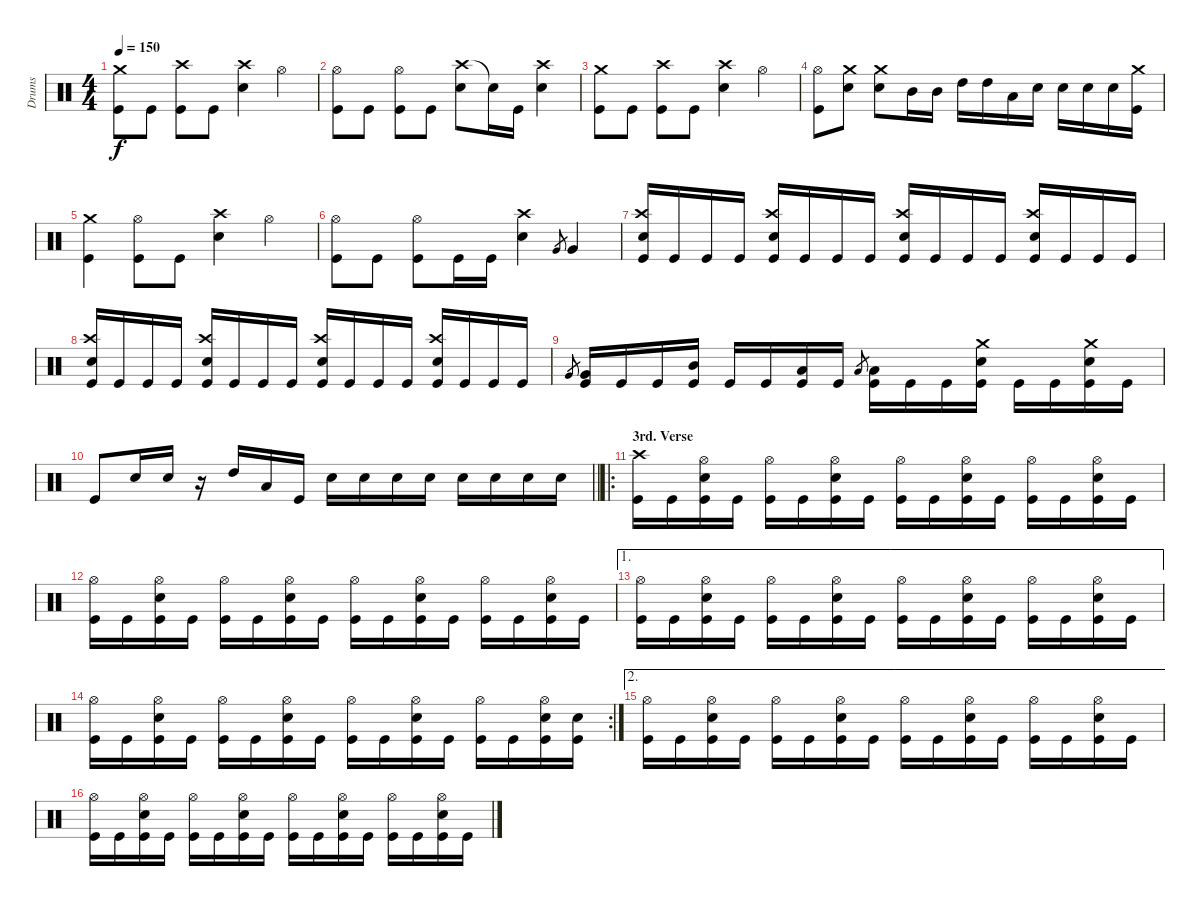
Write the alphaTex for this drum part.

\track ("Drums" "Drums") {instrument percussion}
\staff {score}
\articulation defaults
\ts (4 4)
\tempo 150
\clef neutral
\ks c
("Crash medium (hit)" "Kick (hit)").8{dy f} "Kick (hit)".8 ("Crash high (hit)" "Kick (hit)").8 "Kick (hit)".8 ("Crash high (hit)" "Snare (hit) 2").4 "Hi-Hat (open)".4 |
("Hi-Hat (open)" "Kick (hit)").8 "Kick (hit)".8 ("Hi-Hat (open)" "Kick (hit)").8 "Kick (hit)".8 ("Crash high (hit)" "Snare (hit) 2").8 "Snare (hit)"{t}.16 "Kick (hit)".16 ("Crash high (hit)" "Snare (hit) 2").4 |
("Crash medium (hit)" "Kick (hit)").8 "Kick (hit)".8 ("Crash high (hit)" "Kick (hit)").8 "Kick (hit)".8 ("Crash high (hit)" "Snare (hit) 2").4 "Hi-Hat (open)".4 |
("Hi-Hat (open)" "Kick (hit)").8 ("Crash medium (hit)" "Snare (hit) 2").8 ("Crash medium (hit)" "Snare (hit) 2").8 "Mid Tom (hit)".16 "Mid Tom (hit)".16 "High Tom (hit)".16 "High Tom (hit)".16 "Low Tom (hit)".16 "Snare (hit) 2".16 "Snare (hit) 2".16 "Snare (hit) 2".16 "Snare (hit) 2".16 ("Crash medium (hit)" "Kick (hit)").16 |
("Crash medium (hit)" "Kick (hit)").4 ("Hi-Hat (open)" "Kick (hit)").8 "Kick (hit)".8 ("Crash high (hit)" "Snare (hit) 2").4 "Hi-Hat (open)".4 |
("Hi-Hat (open)" "Kick (hit)").8 "Kick (hit)".8 ("Hi-Hat (open)" "Kick (hit)").8 "Kick (hit)".16 "Kick (hit)".16 ("Crash high (hit)" "Snare (hit) 2").4 "Very Low Tom (hit)".8{gr} "Very Low Tom (hit)".4 |
("Crash high (hit)" "Snare (hit) 2" "Kick (hit)").16 "Kick (hit)".16 "Kick (hit)".16 "Kick (hit)".16 ("Crash high (hit)" "Snare (hit) 2" "Kick (hit)").16 "Kick (hit)".16 "Kick (hit)".16 "Kick (hit)".16 ("Crash high (hit)" "Snare (hit) 2" "Kick (hit)").16 "Kick (hit)".16 "Kick (hit)".16 "Kick (hit)".16 ("Crash high (hit)" "Snare (hit) 2" "Kick (hit)").16 "Kick (hit)".16 "Kick (hit)".16 "Kick (hit)".16 |
("Crash high (hit)" "Snare (hit) 2" "Kick (hit)").16 "Kick (hit)".16 "Kick (hit)".16 "Kick (hit)".16 ("Crash high (hit)" "Snare (hit) 2" "Kick (hit)").16 "Kick (hit)".16 "Kick (hit)".16 "Kick (hit)".16 ("Crash high (hit)" "Snare (hit) 2" "Kick (hit)").16 "Kick (hit)".16 "Kick (hit)".16 "Kick (hit)".16 ("Crash high (hit)" "Snare (hit) 2" "Kick (hit)").16 "Kick (hit)".16 "Kick (hit)".16 "Kick (hit)".16 |
"Very Low Tom (hit)".8{gr} ("Very Low Tom (hit)" "Kick (hit)").16 "Kick (hit)".16 "Kick (hit)".16 ("Mid Tom (hit)" "Kick (hit)").16 "Kick (hit)".16 "Kick (hit)".16 ("Low Tom (hit)" "Kick (hit)").16 "Kick (hit)".16 "Low Tom (hit)".8{gr} ("Low Tom (hit)" "Kick (hit)").16 "Kick (hit)".16 "Kick (hit)".16 ("Crash medium (hit)" "Snare (hit) 2" "Kick (hit)").16 "Kick (hit)".16 "Kick (hit)".16 ("Crash medium (hit)" "Snare (hit) 2" "Kick (hit)").16 "Kick (hit)".16 |
\barLineRight lightlight "Kick (hit)".8 "Snare (hit) 2".16 "Snare (hit) 2".16
r.16 "High Tom (hit)".16 "Low Tom (hit)".16 "Kick (hit)".16 "Snare (hit) 2".16 "Snare (hit) 2".16 "Snare (hit) 2".16 "Snare (hit) 2".16 "Snare (hit) 2".16 "Snare (hit) 2".16 "Snare (hit) 2".16 "Snare (hit) 2".16 |
\ro
\section ("" "3rd. Verse")
("Crash high (hit)" "Kick (hit)").16 "Kick (hit)".16 ("Hi-Hat (open)" "Snare (hit) 2" "Kick (hit)").16 "Kick (hit)".16 ("Hi-Hat (open)" "Kick (hit)").16 "Kick (hit)".16 ("Hi-Hat (open)" "Snare (hit) 2" "Kick (hit)").16 "Kick (hit)".16 ("Hi-Hat (open)" "Kick (hit)").16 "Kick (hit)".16 ("Hi-Hat (open)" "Snare (hit) 2" "Kick (hit)").16 "Kick (hit)".16 ("Hi-Hat (open)" "Kick (hit)").16 "Kick (hit)".16 ("Hi-Hat (open)" "Snare (hit) 2" "Kick (hit)").16 "Kick (hit)".16 |
("Hi-Hat (open)" "Kick (hit)").16 "Kick (hit)".16 ("Hi-Hat (open)" "Snare (hit) 2" "Kick (hit)").16 "Kick (hit)".16 ("Hi-Hat (open)" "Kick (hit)").16 "Kick (hit)".16 ("Hi-Hat (open)" "Snare (hit) 2" "Kick (hit)").16 "Kick (hit)".16 ("Hi-Hat (open)" "Kick (hit)").16 "Kick (hit)".16 ("Hi-Hat (open)" "Snare (hit) 2" "Kick (hit)").16 "Kick (hit)".16 ("Hi-Hat (open)" "Kick (hit)").16 "Kick (hit)".16 ("Hi-Hat (open)" "Snare (hit) 2" "Kick (hit)").16 "Kick (hit)".16 |
\ae 1
("Hi-Hat (open)" "Kick (hit)").16 "Kick (hit)".16 ("Hi-Hat (open)" "Snare (hit) 2" "Kick (hit)").16 "Kick (hit)".16 ("Hi-Hat (open)" "Kick (hit)").16 "Kick (hit)".16 ("Hi-Hat (open)" "Snare (hit) 2" "Kick (hit)").16 "Kick (hit)".16 ("Hi-Hat (open)" "Kick (hit)").16 "Kick (hit)".16 ("Hi-Hat (open)" "Snare (hit) 2" "Kick (hit)").16 "Kick (hit)".16 ("Hi-Hat (open)" "Kick (hit)").16 "Kick (hit)".16 ("Hi-Hat (open)" "Snare (hit) 2" "Kick (hit)").16 "Kick (hit)".16 |
\rc 2
("Hi-Hat (open)" "Kick (hit)").16 "Kick (hit)".16 ("Hi-Hat (open)" "Snare (hit) 2" "Kick (hit)").16 "Kick (hit)".16 ("Hi-Hat (open)" "Kick (hit)").16 "Kick (hit)".16 ("Hi-Hat (open)" "Snare (hit) 2" "Kick (hit)").16 "Kick (hit)".16 ("Hi-Hat (open)" "Kick (hit)").16 "Kick (hit)".16 ("Hi-Hat (open)" "Snare (hit) 2" "Kick (hit)").16 "Kick (hit)".16 ("Hi-Hat (open)" "Kick (hit)").16 "Kick (hit)".16 ("Hi-Hat (open)" "Snare (hit) 2" "Kick (hit)").16 ("Snare (hit) 2" "Kick (hit)").16 |
\ae 2
("Hi-Hat (open)" "Kick (hit)").16 "Kick (hit)".16 ("Hi-Hat (open)" "Snare (hit) 2" "Kick (hit)").16 "Kick (hit)".16 ("Hi-Hat (open)" "Kick (hit)").16 "Kick (hit)".16 ("Hi-Hat (open)" "Snare (hit) 2" "Kick (hit)").16 "Kick (hit)".16 ("Hi-Hat (open)" "Kick (hit)").16 "Kick (hit)".16 ("Hi-Hat (open)" "Snare (hit) 2" "Kick (hit)").16 "Kick (hit)".16 ("Hi-Hat (open)" "Kick (hit)").16 "Kick (hit)".16 ("Hi-Hat (open)" "Snare (hit) 2" "Kick (hit)").16 "Kick (hit)".16 |
("Hi-Hat (open)" "Kick (hit)").16 "Kick (hit)".16 ("Hi-Hat (open)" "Snare (hit) 2" "Kick (hit)").16 "Kick (hit)".16 ("Hi-Hat (open)" "Kick (hit)").16 "Kick (hit)".16 ("Hi-Hat (open)" "Snare (hit) 2" "Kick (hit)").16 "Kick (hit)".16 ("Hi-Hat (open)" "Kick (hit)").16 "Kick (hit)".16 ("Hi-Hat (open)" "Snare (hit) 2" "Kick (hit)").16 "Kick (hit)".16 ("Hi-Hat (open)" "Kick (hit)").16 "Kick (hit)".16 ("Hi-Hat (open)" "Snare (hit) 2" "Kick (hit)").16 "Kick (hit)".16
